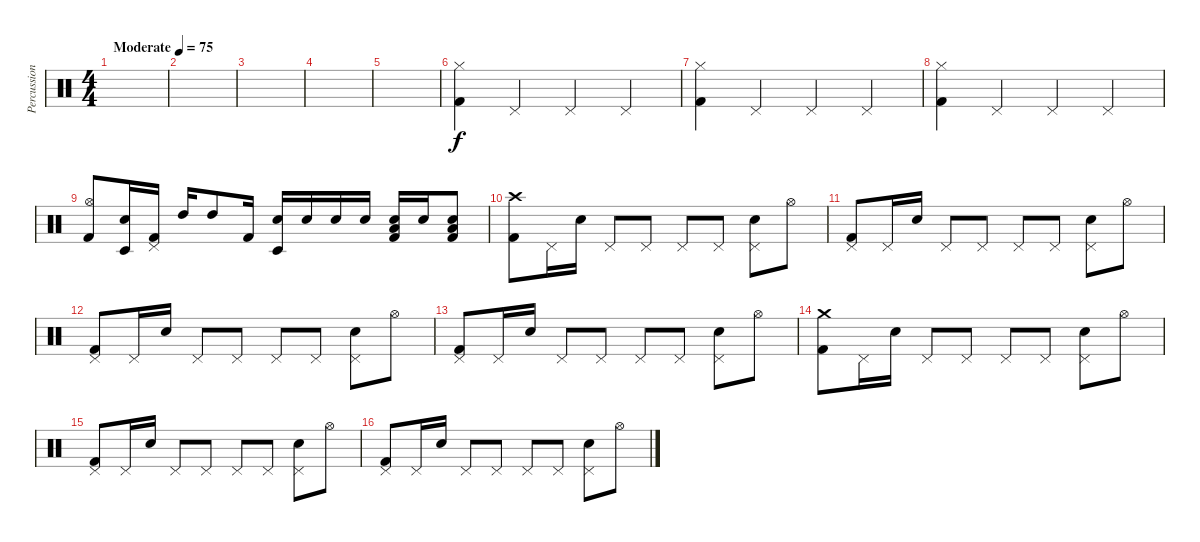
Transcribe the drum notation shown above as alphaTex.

\track ("Percussion" "Percussion") {instrument percussion}
\staff {score}
\articulation defaults
\ts (4 4)
\tempo (75 "Moderate")
\clef neutral
\ks c
|
|
|
|
|
("Hi-Hat (closed)" "Kick (hit) 2").4 "Pedal Hi-Hat (hit)".4 "Pedal Hi-Hat (hit)".4 "Pedal Hi-Hat (hit)".4 |
("Hi-Hat (closed)" "Kick (hit) 2").4 "Pedal Hi-Hat (hit)".4 "Pedal Hi-Hat (hit)".4 "Pedal Hi-Hat (hit)".4 |
("Hi-Hat (closed)" "Kick (hit) 2").4 "Pedal Hi-Hat (hit)".4 "Pedal Hi-Hat (hit)".4 "Pedal Hi-Hat (hit)".4 |
("Hi-Hat (open)" "Kick (hit) 2").8 ("Timbale low (hit)" "Electric Snare (hit)").16 ("Pedal Hi-Hat (hit)" "Kick (hit) 2").16 "High Tom (hit)".16 "High Tom (hit)".8 "Kick (hit) 2".16 ("Timbale low (hit)" "Electric Snare (hit)").16 "Electric Snare (hit)".16 "Electric Snare (hit)".16 "Electric Snare (hit)".16 ("Low Tom (hit)" "Electric Snare (hit)" "Kick (hit) 2").16 "Electric Snare (hit)".16 ("Low Tom (hit)" "Electric Snare (hit)" "Kick (hit) 2").8 |
("Crash high (hit)" "Kick (hit) 2").8 "Pedal Hi-Hat (hit)".16 "Electric Snare (hit)".16 "Pedal Hi-Hat (hit)".8 "Pedal Hi-Hat (hit)".8 "Pedal Hi-Hat (hit)".8 "Pedal Hi-Hat (hit)".8 ("Pedal Hi-Hat (hit)" "Electric Snare (hit)").8 "Hi-Hat (open)".8 |
("Pedal Hi-Hat (hit)" "Kick (hit) 2").8 "Pedal Hi-Hat (hit)".16 "Electric Snare (hit)".16 "Pedal Hi-Hat (hit)".8 "Pedal Hi-Hat (hit)".8 "Pedal Hi-Hat (hit)".8 "Pedal Hi-Hat (hit)".8 ("Pedal Hi-Hat (hit)" "Electric Snare (hit)").8 "Hi-Hat (open)".8 |
("Pedal Hi-Hat (hit)" "Kick (hit) 2").8 "Pedal Hi-Hat (hit)".16 "Electric Snare (hit)".16 "Pedal Hi-Hat (hit)".8 "Pedal Hi-Hat (hit)".8 "Pedal Hi-Hat (hit)".8 "Pedal Hi-Hat (hit)".8 ("Pedal Hi-Hat (hit)" "Electric Snare (hit)").8 "Hi-Hat (open)".8 |
("Pedal Hi-Hat (hit)" "Kick (hit) 2").8 "Pedal Hi-Hat (hit)".16 "Electric Snare (hit)".16 "Pedal Hi-Hat (hit)".8 "Pedal Hi-Hat (hit)".8 "Pedal Hi-Hat (hit)".8 "Pedal Hi-Hat (hit)".8 ("Pedal Hi-Hat (hit)" "Electric Snare (hit)").8 "Hi-Hat (open)".8 |
("Crash medium (hit)" "Kick (hit) 2").8 "Pedal Hi-Hat (hit)".16 "Electric Snare (hit)".16 "Pedal Hi-Hat (hit)".8 "Pedal Hi-Hat (hit)".8 "Pedal Hi-Hat (hit)".8 "Pedal Hi-Hat (hit)".8 ("Pedal Hi-Hat (hit)" "Electric Snare (hit)").8 "Hi-Hat (open)".8 |
("Pedal Hi-Hat (hit)" "Kick (hit) 2").8 "Pedal Hi-Hat (hit)".16 "Electric Snare (hit)".16 "Pedal Hi-Hat (hit)".8 "Pedal Hi-Hat (hit)".8 "Pedal Hi-Hat (hit)".8 "Pedal Hi-Hat (hit)".8 ("Pedal Hi-Hat (hit)" "Electric Snare (hit)").8 "Hi-Hat (open)".8 |
("Pedal Hi-Hat (hit)" "Kick (hit) 2").8 "Pedal Hi-Hat (hit)".16 "Electric Snare (hit)".16 "Pedal Hi-Hat (hit)".8 "Pedal Hi-Hat (hit)".8 "Pedal Hi-Hat (hit)".8 "Pedal Hi-Hat (hit)".8 ("Pedal Hi-Hat (hit)" "Electric Snare (hit)").8 "Hi-Hat (open)".8
